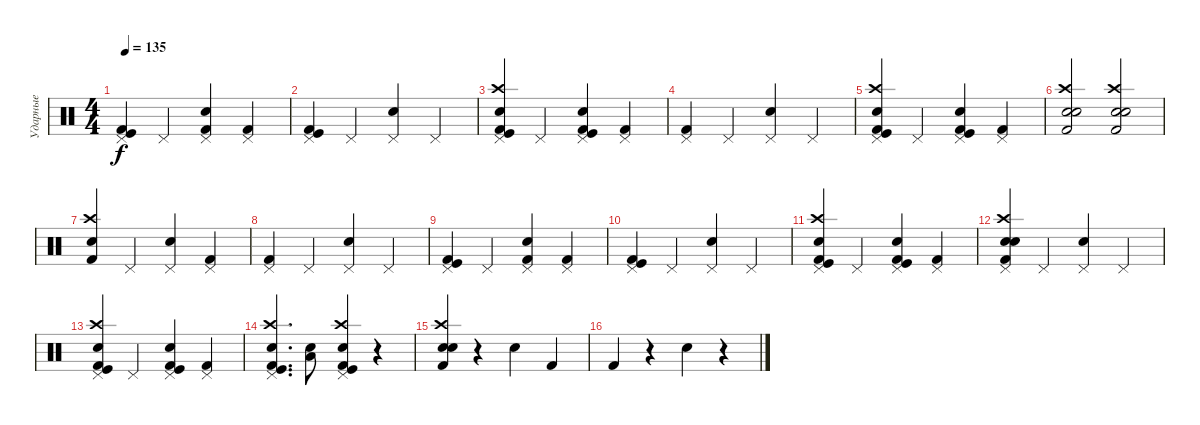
\track ("Ударные" "Ударные") {instrument percussion}
\staff {score}
\articulation defaults
\ts (4 4)
\tempo 135
\clef neutral
\ks c
("Pedal Hi-Hat (hit)" "Kick (hit) 2" "Kick (hit)").4{dy f} "Pedal Hi-Hat (hit)".4 ("Pedal Hi-Hat (hit)" "Electric Snare (hit)" "Kick (hit) 2").4 ("Pedal Hi-Hat (hit)" "Kick (hit) 2").4 |
("Kick (hit) 2" "Kick (hit)" "Pedal Hi-Hat (hit)").4 "Pedal Hi-Hat (hit)".4 ("Electric Snare (hit)" "Pedal Hi-Hat (hit)").4 "Pedal Hi-Hat (hit)".4 |
("Pedal Hi-Hat (hit)" "Kick (hit)" "Crash high (hit)" "Snare (hit) 2" "Kick (hit) 2").4 "Pedal Hi-Hat (hit)".4 ("Kick (hit)" "Pedal Hi-Hat (hit)" "Electric Snare (hit)" "Kick (hit) 2").4 ("Pedal Hi-Hat (hit)" "Kick (hit) 2").4 |
("Pedal Hi-Hat (hit)" "Kick (hit) 2").4 "Pedal Hi-Hat (hit)".4 ("Pedal Hi-Hat (hit)" "Electric Snare (hit)").4 "Pedal Hi-Hat (hit)".4 |
("Pedal Hi-Hat (hit)" "Kick (hit)" "Crash high (hit)" "Snare (hit) 2" "Kick (hit) 2").4 "Pedal Hi-Hat (hit)".4 ("Kick (hit)" "Pedal Hi-Hat (hit)" "Electric Snare (hit)" "Kick (hit) 2").4 ("Pedal Hi-Hat (hit)" "Kick (hit) 2").4 |
("Kick (hit) 2" "Snare (hit) 2" "Crash high (hit)" "Electric Snare (hit)").2 ("Kick (hit) 2" "Snare (hit) 2" "Crash high (hit)" "Electric Snare (hit)").2 |
("Kick (hit) 2" "Snare (hit) 2" "Crash high (hit)").4 "Pedal Hi-Hat (hit)".4 ("Electric Snare (hit)" "Pedal Hi-Hat (hit)").4 ("Kick (hit) 2" "Pedal Hi-Hat (hit)").4 |
("Pedal Hi-Hat (hit)" "Kick (hit) 2").4 "Pedal Hi-Hat (hit)".4 ("Pedal Hi-Hat (hit)" "Electric Snare (hit)").4 "Pedal Hi-Hat (hit)".4 |
("Pedal Hi-Hat (hit)" "Kick (hit) 2" "Kick (hit)").4 "Pedal Hi-Hat (hit)".4 ("Pedal Hi-Hat (hit)" "Electric Snare (hit)" "Kick (hit) 2").4 ("Pedal Hi-Hat (hit)" "Kick (hit) 2").4 |
("Kick (hit) 2" "Kick (hit)" "Pedal Hi-Hat (hit)").4 "Pedal Hi-Hat (hit)".4 ("Electric Snare (hit)" "Pedal Hi-Hat (hit)").4 "Pedal Hi-Hat (hit)".4 |
("Pedal Hi-Hat (hit)" "Kick (hit)" "Crash high (hit)" "Snare (hit) 2" "Kick (hit) 2").4 "Pedal Hi-Hat (hit)".4 ("Kick (hit)" "Pedal Hi-Hat (hit)" "Electric Snare (hit)" "Kick (hit) 2").4 ("Pedal Hi-Hat (hit)" "Kick (hit) 2").4 |
("Snare (hit) 2" "Pedal Hi-Hat (hit)" "Kick (hit) 2" "Crash high (hit)" "Electric Snare (hit)").4 "Pedal Hi-Hat (hit)".4 ("Pedal Hi-Hat (hit)" "Electric Snare (hit)").4 "Pedal Hi-Hat (hit)".4 |
("Pedal Hi-Hat (hit)" "Kick (hit)" "Crash high (hit)" "Snare (hit) 2" "Kick (hit) 2").4 "Pedal Hi-Hat (hit)".4 ("Pedal Hi-Hat (hit)" "Kick (hit)" "Snare (hit) 2" "Kick (hit) 2").4 ("Pedal Hi-Hat (hit)" "Kick (hit) 2").4 |
("Pedal Hi-Hat (hit)" "Kick (hit)" "Crash high (hit)" "Snare (hit) 2" "Kick (hit) 2").4{d} ("Electric Snare (hit)" "Low Tom (hit)").8 ("Pedal Hi-Hat (hit)" "Kick (hit)" "Crash high (hit)" "Snare (hit) 2" "Kick (hit) 2").4 r.4 |
("Electric Snare (hit)" "Kick (hit) 2" "Snare (hit) 2" "Crash high (hit)").4 r.4 "Electric Snare (hit)".4 "Kick (hit) 2".4 |
"Kick (hit) 2".4 r.4 "Electric Snare (hit)".4 r.4
